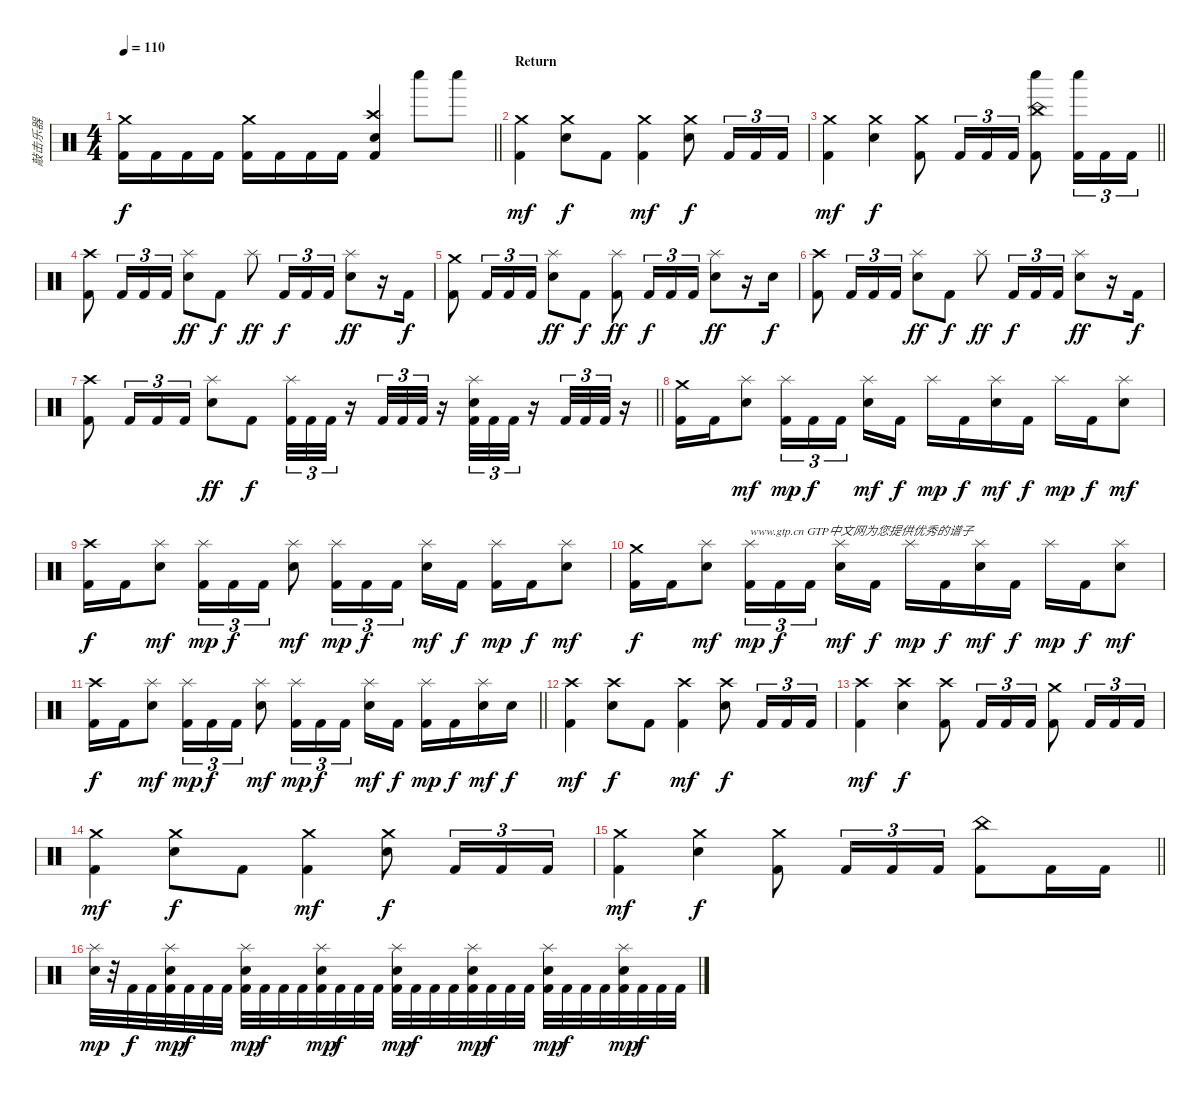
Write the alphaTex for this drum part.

\track ("敲击乐器" "敲击乐器") {instrument percussion}
\staff {score}
\articulation defaults
\ts (4 4)
\tempo 110
\clef neutral
\barLineRight lightlight
\ks c
("Crash medium (hit)" "Kick (hit) 2").16{dy f} "Kick (hit) 2".16 "Kick (hit) 2".16 "Kick (hit) 2".16 ("Crash medium (hit)" "Kick (hit) 2").16 "Kick (hit) 2".16 "Kick (hit) 2".16 "Kick (hit) 2".16 ("Crash high (hit)" "Snare (hit) 2" "Kick (hit) 2").4 "Whistle low (hit)".8 "Whistle low (hit)".8 |
\section ("" "Return")
("Crash medium (hit)" "Kick (hit) 2").4{dy mf} ("Crash medium (hit)" "Snare (hit) 2").8{dy f} "Kick (hit) 2".8 ("Crash medium (hit)" "Kick (hit) 2").4{dy mf} ("Crash medium (hit)" "Snare (hit) 2").8{dy f} "Kick (hit) 2".16{tu (3 2)} "Kick (hit) 2".16{tu (3 2)} "Kick (hit) 2".16{tu (3 2)} |
\barLineRight lightlight
("Crash medium (hit)" "Kick (hit) 2").4{dy mf} ("Crash medium (hit)" "Snare (hit) 2").4{dy f} ("Crash medium (hit)" "Kick (hit) 2").8 "Kick (hit) 2".16{tu (3 2)} "Kick (hit) 2".16{tu (3 2)} "Kick (hit) 2".16{tu (3 2)} ("China (hit)" "Whistle low (hit)" "Kick (hit) 2").8 ("Whistle low (hit)" "Kick (hit) 2").16{tu (3 2)} "Kick (hit) 2".16{tu (3 2)} "Kick (hit) 2".16{tu (3 2)} |
("Crash high (hit)" "Kick (hit) 2").8 "Kick (hit) 2".16{tu (3 2)} "Kick (hit) 2".16{tu (3 2)} "Kick (hit) 2".16{tu (3 2)} ("Splash (hit)" "Snare (hit) 2").8{dy ff} "Kick (hit) 2".8{dy f} "Splash (hit)".8{dy ff} "Kick (hit) 2".16{tu (3 2) dy f} "Kick (hit) 2".16{tu (3 2)} "Kick (hit) 2".16{tu (3 2)} ("Splash (hit)" "Snare (hit) 2").8{dy ff} r.16 "Kick (hit) 2".16{dy f} |
("Crash medium (hit)" "Kick (hit) 2").8 "Kick (hit) 2".16{tu (3 2)} "Kick (hit) 2".16{tu (3 2)} "Kick (hit) 2".16{tu (3 2)} ("Splash (hit)" "Snare (hit) 2").8{dy ff} "Kick (hit) 2".8{dy f} ("Splash (hit)" "Kick (hit) 2").8{dy ff} "Kick (hit) 2".16{tu (3 2) dy f} "Kick (hit) 2".16{tu (3 2)} "Kick (hit) 2".16{tu (3 2)} ("Splash (hit)" "Snare (hit) 2").8{dy ff} r.16 "Snare (hit) 2".16{dy f} |
("Crash high (hit)" "Kick (hit) 2").8 "Kick (hit) 2".16{tu (3 2)} "Kick (hit) 2".16{tu (3 2)} "Kick (hit) 2".16{tu (3 2)} ("Splash (hit)" "Snare (hit) 2").8{dy ff} "Kick (hit) 2".8{dy f} "Splash (hit)".8{dy ff} "Kick (hit) 2".16{tu (3 2) dy f} "Kick (hit) 2".16{tu (3 2)} "Kick (hit) 2".16{tu (3 2)} ("Splash (hit)" "Snare (hit) 2").8{dy ff} r.16 "Kick (hit) 2".16{dy f} |
\barLineRight lightlight
("Crash high (hit)" "Kick (hit) 2").8 "Kick (hit) 2".16{tu (3 2)} "Kick (hit) 2".16{tu (3 2)} "Kick (hit) 2".16{tu (3 2)} ("Splash (hit)" "Snare (hit) 2").8{dy ff} "Kick (hit) 2".8{dy f} ("Splash (hit)" "Kick (hit) 2").32{tu (3 2)} "Kick (hit) 2".32{tu (3 2)} "Kick (hit) 2".32{tu (3 2)} r.16 "Kick (hit) 2".32{tu (3 2)} "Kick (hit) 2".32{tu (3 2)} "Kick (hit) 2".32{tu (3 2)} r.16 ("Splash (hit)" "Snare (hit) 2" "Kick (hit) 2").32{tu (3 2)} "Kick (hit) 2".32{tu (3 2)} "Kick (hit) 2".32{tu (3 2)} r.16 "Kick (hit) 2".32{tu (3 2)} "Kick (hit) 2".32{tu (3 2)} "Kick (hit) 2".32{tu (3 2)} r.16 |
("Crash medium (hit)" "Kick (hit) 2").16 "Kick (hit) 2".16 ("Splash (hit)" "Snare (hit) 2").8{dy mf} ("Splash (hit)" "Kick (hit) 2").16{tu (3 2) dy mp} "Kick (hit) 2".16{tu (3 2) dy f} "Kick (hit) 2".16{tu (3 2) beam splitsecondary} ("Splash (hit)" "Snare (hit) 2").16{dy mf} "Kick (hit) 2".16{dy f} "Splash (hit)".16{dy mp} "Kick (hit) 2".16{dy f} ("Splash (hit)" "Snare (hit) 2").16{dy mf} "Kick (hit) 2".16{dy f} "Splash (hit)".16{dy mp} "Kick (hit) 2".16{dy f} ("Splash (hit)" "Snare (hit) 2").8{dy mf} |
("Crash high (hit)" "Kick (hit) 2").16{dy f} "Kick (hit) 2".16 ("Splash (hit)" "Snare (hit) 2").8{dy mf} ("Splash (hit)" "Kick (hit) 2").16{tu (3 2) dy mp} "Kick (hit) 2".16{tu (3 2) dy f} "Kick (hit) 2".16{tu (3 2)} ("Splash (hit)" "Snare (hit) 2").8{dy mf} ("Splash (hit)" "Kick (hit) 2").16{tu (3 2) dy mp} "Kick (hit) 2".16{tu (3 2) dy f} "Kick (hit) 2".16{tu (3 2) beam splitsecondary} ("Splash (hit)" "Snare (hit) 2").16{dy mf} "Kick (hit) 2".16{dy f} ("Splash (hit)" "Kick (hit) 2").16{dy mp} "Kick (hit) 2".16{dy f} ("Splash (hit)" "Snare (hit) 2").8{dy mf} |
("Crash medium (hit)" "Kick (hit) 2").16{dy f} "Kick (hit) 2".16 ("Splash (hit)" "Snare (hit) 2").8{dy mf} ("Splash (hit)" "Kick (hit) 2").16{tu (3 2) txt "www.gtp.cn GTP中文网为您提供优秀的谱子" dy mp} "Kick (hit) 2".16{tu (3 2) dy f} "Kick (hit) 2".16{tu (3 2) beam splitsecondary} ("Splash (hit)" "Snare (hit) 2").16{dy mf} "Kick (hit) 2".16{dy f} "Splash (hit)".16{dy mp} "Kick (hit) 2".16{dy f} ("Splash (hit)" "Snare (hit) 2").16{dy mf} "Kick (hit) 2".16{dy f} "Splash (hit)".16{dy mp} "Kick (hit) 2".16{dy f} ("Splash (hit)" "Snare (hit) 2").8{dy mf} |
\barLineRight lightlight
("Crash high (hit)" "Kick (hit) 2").16{dy f} "Kick (hit) 2".16 ("Splash (hit)" "Snare (hit) 2").8{dy mf} ("Splash (hit)" "Kick (hit) 2").16{tu (3 2) dy mp} "Kick (hit) 2".16{tu (3 2) dy f} "Kick (hit) 2".16{tu (3 2)} ("Splash (hit)" "Snare (hit) 2").8{dy mf} ("Splash (hit)" "Kick (hit) 2").16{tu (3 2) dy mp} "Kick (hit) 2".16{tu (3 2) dy f} "Kick (hit) 2".16{tu (3 2) beam splitsecondary} ("Splash (hit)" "Snare (hit) 2").16{dy mf} "Kick (hit) 2".16{dy f} ("Splash (hit)" "Kick (hit) 2").16{dy mp} "Kick (hit) 2".16{dy f} ("Splash (hit)" "Snare (hit) 2").16{dy mf} "Snare (hit) 2".16{dy f} |
("Crash high (hit)" "Kick (hit) 2").4{dy mf} ("Crash high (hit)" "Snare (hit) 2").8{dy f} "Kick (hit) 2".8 ("Crash high (hit)" "Kick (hit) 2").4{dy mf} ("Crash high (hit)" "Snare (hit) 2").8{dy f} "Kick (hit) 2".16{tu (3 2)} "Kick (hit) 2".16{tu (3 2)} "Kick (hit) 2".16{tu (3 2)} |
("Crash high (hit)" "Kick (hit) 2").4{dy mf} ("Crash high (hit)" "Snare (hit) 2").4{dy f} ("Crash high (hit)" "Kick (hit) 2").8 "Kick (hit) 2".16{tu (3 2)} "Kick (hit) 2".16{tu (3 2)} "Kick (hit) 2".16{tu (3 2)} ("Crash medium (hit)" "Kick (hit) 2").8 "Kick (hit) 2".16{tu (3 2)} "Kick (hit) 2".16{tu (3 2)} "Kick (hit) 2".16{tu (3 2)} |
("Crash medium (hit)" "Kick (hit) 2").4{dy mf} ("Crash medium (hit)" "Snare (hit) 2").8{dy f} "Kick (hit) 2".8 ("Crash medium (hit)" "Kick (hit) 2").4{dy mf} ("Crash medium (hit)" "Snare (hit) 2").8{dy f} "Kick (hit) 2".16{tu (3 2)} "Kick (hit) 2".16{tu (3 2)} "Kick (hit) 2".16{tu (3 2)} |
\barLineRight lightlight
("Crash medium (hit)" "Kick (hit) 2").4{dy mf} ("Crash medium (hit)" "Snare (hit) 2").4{dy f} ("Crash medium (hit)" "Kick (hit) 2").8 "Kick (hit) 2".16{tu (3 2)} "Kick (hit) 2".16{tu (3 2)} "Kick (hit) 2".16{tu (3 2)} ("China (hit)" "Kick (hit) 2").8 "Kick (hit) 2".16 "Kick (hit) 2".16 |
("Splash (hit)" "Snare (hit) 2").32{dy mp} r.32 "Kick (hit) 2".32{dy f} "Kick (hit) 2".32 ("Splash (hit)" "Snare (hit) 2" "Kick (hit) 2").32{dy mp} "Kick (hit) 2".32{dy f} "Kick (hit) 2".32 "Kick (hit) 2".32 ("Splash (hit)" "Snare (hit) 2" "Kick (hit) 2").32{dy mp} "Kick (hit) 2".32{dy f} "Kick (hit) 2".32 "Kick (hit) 2".32 ("Splash (hit)" "Snare (hit) 2" "Kick (hit) 2").32{dy mp} "Kick (hit) 2".32{dy f} "Kick (hit) 2".32 "Kick (hit) 2".32 ("Splash (hit)" "Snare (hit) 2" "Kick (hit) 2").32{dy mp} "Kick (hit) 2".32{dy f} "Kick (hit) 2".32 "Kick (hit) 2".32 ("Splash (hit)" "Snare (hit) 2" "Kick (hit) 2").32{dy mp} "Kick (hit) 2".32{dy f} "Kick (hit) 2".32 "Kick (hit) 2".32 ("Splash (hit)" "Snare (hit) 2" "Kick (hit) 2").32{dy mp} "Kick (hit) 2".32{dy f} "Kick (hit) 2".32 "Kick (hit) 2".32 ("Splash (hit)" "Snare (hit) 2" "Kick (hit) 2").32{dy mp} "Kick (hit) 2".32{dy f} "Kick (hit) 2".32 "Kick (hit) 2".32
